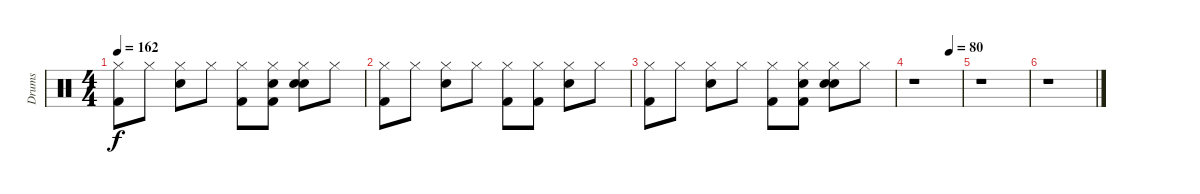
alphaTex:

\track ("Drums" "Drums") {instrument percussion}
\staff {score}
\articulation defaults
\ts (4 4)
\tempo 162
\clef neutral
\ks c
("Hi-Hat (closed)" "Kick (hit) 2").8{dy f} "Hi-Hat (closed)".8 ("Hi-Hat (closed)" "Snare (hit) 2").8 "Hi-Hat (closed)".8 ("Hi-Hat (closed)" "Kick (hit) 2").8 ("Hi-Hat (closed)" "Hand Clap (hit)" "Kick (hit) 2").8 ("Hi-Hat (closed)" "Snare (hit) 2" "Hand Clap (hit)").8 "Hi-Hat (closed)".8 |
("Hi-Hat (closed)" "Kick (hit) 2").8 "Hi-Hat (closed)".8 ("Hi-Hat (closed)" "Snare (hit) 2").8 "Hi-Hat (closed)".8 ("Hi-Hat (closed)" "Kick (hit) 2").8 ("Hi-Hat (closed)" "Kick (hit) 2").8 ("Hi-Hat (closed)" "Snare (hit) 2").8 "Hi-Hat (closed)".8 |
("Hi-Hat (closed)" "Kick (hit) 2").8 "Hi-Hat (closed)".8 ("Hi-Hat (closed)" "Snare (hit) 2").8 "Hi-Hat (closed)".8 ("Hi-Hat (closed)" "Kick (hit) 2").8 ("Hi-Hat (closed)" "Hand Clap (hit)" "Kick (hit) 2").8 ("Hi-Hat (closed)" "Snare (hit) 2" "Hand Clap (hit)").8 "Hi-Hat (closed)".8 |
\tempo (80 0.75)
r.1 |
r.1 |
r.1
